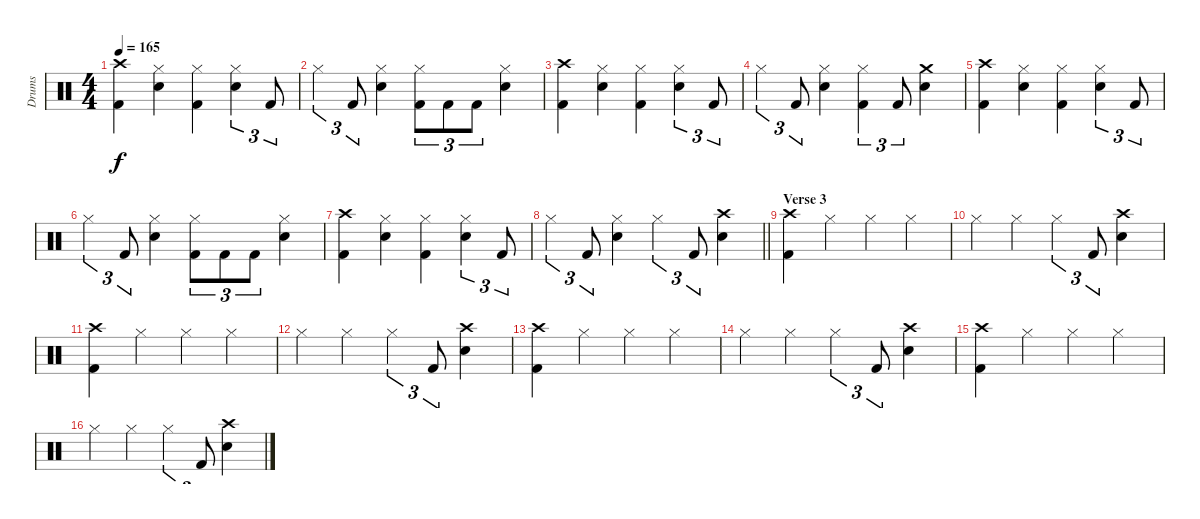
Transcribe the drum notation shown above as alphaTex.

\track ("Drums" "Drums") {instrument percussion}
\staff {score}
\articulation defaults
\ts (4 4)
\tempo 165
\clef neutral
\ks c
("Kick (hit) 2" "Crash high (hit)").4{dy f} ("Snare (hit) 2" "Hi-Hat (closed)").4 ("Kick (hit) 2" "Hi-Hat (closed)").4 ("Snare (hit) 2" "Hi-Hat (closed)").4{tu (3 2)} "Kick (hit) 2".8{tu (3 2)} |
"Hi-Hat (closed)".4{tu (3 2)} "Kick (hit) 2".8{tu (3 2)} ("Snare (hit) 2" "Hi-Hat (closed)").4 ("Kick (hit) 2" "Hi-Hat (closed)").8{tu (3 2)} "Kick (hit) 2".8{tu (3 2)} "Kick (hit) 2".8{tu (3 2)} ("Snare (hit) 2" "Hi-Hat (closed)").4 |
("Kick (hit) 2" "Crash high (hit)").4 ("Snare (hit) 2" "Hi-Hat (closed)").4 ("Kick (hit) 2" "Hi-Hat (closed)").4 ("Snare (hit) 2" "Hi-Hat (closed)").4{tu (3 2)} "Kick (hit) 2".8{tu (3 2)} |
"Hi-Hat (closed)".4{tu (3 2)} "Kick (hit) 2".8{tu (3 2)} ("Snare (hit) 2" "Hi-Hat (closed)").4 ("Kick (hit) 2" "Hi-Hat (closed)").4{tu (3 2)} "Kick (hit) 2".8{tu (3 2)} ("Snare (hit) 2" "Crash medium (hit)").4 |
("Kick (hit) 2" "Crash high (hit)").4 ("Snare (hit) 2" "Hi-Hat (closed)").4 ("Kick (hit) 2" "Hi-Hat (closed)").4 ("Snare (hit) 2" "Hi-Hat (closed)").4{tu (3 2)} "Kick (hit) 2".8{tu (3 2)} |
"Hi-Hat (closed)".4{tu (3 2)} "Kick (hit) 2".8{tu (3 2)} ("Snare (hit) 2" "Hi-Hat (closed)").4 ("Kick (hit) 2" "Hi-Hat (closed)").8{tu (3 2)} "Kick (hit) 2".8{tu (3 2)} "Kick (hit) 2".8{tu (3 2)} ("Snare (hit) 2" "Hi-Hat (closed)").4 |
("Kick (hit) 2" "Crash high (hit)").4 ("Snare (hit) 2" "Hi-Hat (closed)").4 ("Kick (hit) 2" "Hi-Hat (closed)").4 ("Snare (hit) 2" "Hi-Hat (closed)").4{tu (3 2)} "Kick (hit) 2".8{tu (3 2)} |
\barLineRight lightlight "Hi-Hat (closed)".4{tu (3 2)} "Kick (hit) 2".8{tu (3 2)}
("Snare (hit) 2" "Hi-Hat (closed)").4 "Hi-Hat (closed)".4{tu (3 2)} "Kick (hit) 2".8{tu (3 2)} ("Snare (hit) 2" "Crash high (hit)").4 |
\section ("" "Verse 3")
("Kick (hit) 2" "Crash high (hit)").4 "Hi-Hat (closed)".4 "Hi-Hat (closed)".4 "Hi-Hat (closed)".4 |
"Hi-Hat (closed)".4 "Hi-Hat (closed)".4 "Hi-Hat (closed)".4{tu (3 2)} "Kick (hit) 2".8{tu (3 2)} ("Snare (hit) 2" "Crash high (hit)").4 |
("Kick (hit) 2" "Crash high (hit)").4 "Hi-Hat (closed)".4 "Hi-Hat (closed)".4 "Hi-Hat (closed)".4 |
"Hi-Hat (closed)".4 "Hi-Hat (closed)".4 "Hi-Hat (closed)".4{tu (3 2)} "Kick (hit) 2".8{tu (3 2)} ("Snare (hit) 2" "Crash high (hit)").4 |
("Kick (hit) 2" "Crash high (hit)").4 "Hi-Hat (closed)".4 "Hi-Hat (closed)".4 "Hi-Hat (closed)".4 |
"Hi-Hat (closed)".4 "Hi-Hat (closed)".4 "Hi-Hat (closed)".4{tu (3 2)} "Kick (hit) 2".8{tu (3 2)} ("Snare (hit) 2" "Crash high (hit)").4 |
("Kick (hit) 2" "Crash high (hit)").4 "Hi-Hat (closed)".4 "Hi-Hat (closed)".4 "Hi-Hat (closed)".4 |
"Hi-Hat (closed)".4 "Hi-Hat (closed)".4 "Hi-Hat (closed)".4{tu (3 2)} "Kick (hit) 2".8{tu (3 2)} ("Snare (hit) 2" "Crash high (hit)").4
